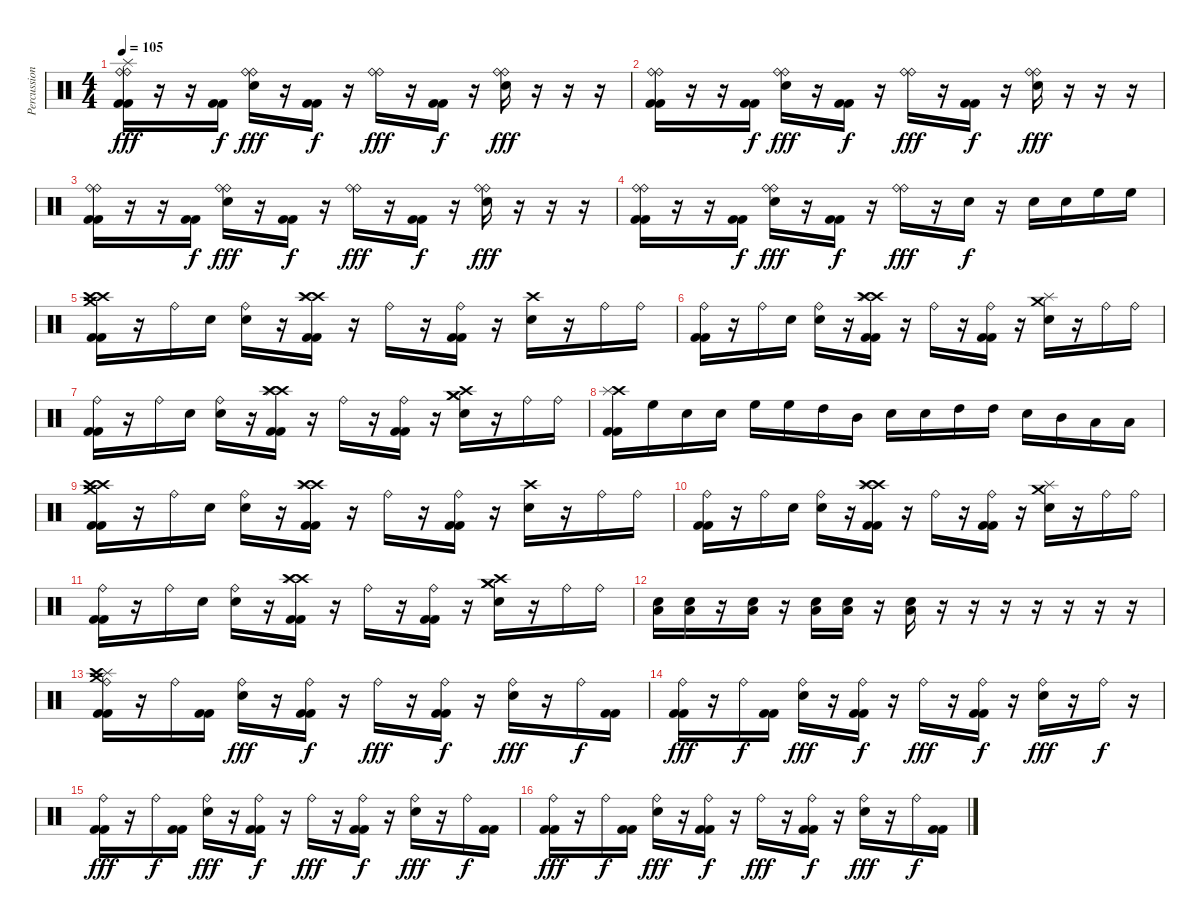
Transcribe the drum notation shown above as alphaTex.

\track ("Percussion" "Percussion") {instrument percussion}
\staff {score}
\articulation defaults
\ts (4 4)
\tempo 105
\clef neutral
\ks c
("Ride (bell)" "Ride (bell)" "Splash (hit)" "Kick (hit) 2" "Kick (hit) 2").16{dy fff} r.16 r.16 ("Kick (hit) 2" "Kick (hit) 2").16{dy f} ("Ride (bell)" "Ride (bell)" "Electric Snare (hit)").16{dy fff} r.16 ("Kick (hit) 2" "Kick (hit) 2").16{dy f} r.16 ("Ride (bell)" "Ride (bell)").16{dy fff} r.16 ("Kick (hit) 2" "Kick (hit) 2").16{dy f} r.16 ("Ride (bell)" "Ride (bell)" "Electric Snare (hit)").16{dy fff} r.16 r.16 r.16 |
("Ride (bell)" "Ride (bell)" "Kick (hit) 2" "Kick (hit) 2").16 r.16 r.16 ("Kick (hit) 2" "Kick (hit) 2").16{dy f} ("Ride (bell)" "Ride (bell)" "Electric Snare (hit)").16{dy fff} r.16 ("Kick (hit) 2" "Kick (hit) 2").16{dy f} r.16 ("Ride (bell)" "Ride (bell)").16{dy fff} r.16 ("Kick (hit) 2" "Kick (hit) 2").16{dy f} r.16 ("Ride (bell)" "Ride (bell)" "Electric Snare (hit)").16{dy fff} r.16 r.16 r.16 |
("Ride (bell)" "Ride (bell)" "Kick (hit) 2" "Kick (hit) 2").16 r.16 r.16 ("Kick (hit) 2" "Kick (hit) 2").16{dy f} ("Ride (bell)" "Ride (bell)" "Electric Snare (hit)").16{dy fff} r.16 ("Kick (hit) 2" "Kick (hit) 2").16{dy f} r.16 ("Ride (bell)" "Ride (bell)").16{dy fff} r.16 ("Kick (hit) 2" "Kick (hit) 2").16{dy f} r.16 ("Ride (bell)" "Ride (bell)" "Electric Snare (hit)").16{dy fff} r.16 r.16 r.16 |
("Ride (bell)" "Ride (bell)" "Kick (hit) 2" "Kick (hit) 2").16 r.16 r.16 ("Kick (hit) 2" "Kick (hit) 2").16{dy f} ("Ride (bell)" "Ride (bell)" "Electric Snare (hit)").16{dy fff} r.16 ("Kick (hit) 2" "Kick (hit) 2").16{dy f} r.16 ("Ride (bell)" "Ride (bell)").16{dy fff} r.16 "Electric Snare (hit)".16{dy f} r.16 "Electric Snare (hit)".16 "Electric Snare (hit)".16 "High Floor Tom (hit)".16 "High Floor Tom (hit)".16 |
("Crash high (hit)" "Crash high (hit)" "Crash medium (hit)" "Kick (hit) 2" "Kick (hit) 2").16 r.16 "Ride (bell)".16 "Electric Snare (hit)".16 ("Ride (bell)" "Electric Snare (hit)").16 r.16 ("Crash high (hit)" "Crash high (hit)" "Splash (hit)" "Kick (hit) 2" "Kick (hit) 2").16 r.16 "Ride (bell)".16 r.16 ("Ride (bell)" "Kick (hit) 2" "Kick (hit) 2").16 r.16 ("Crash high (hit)" "Electric Snare (hit)").16 r.16 "Ride (bell)".16 "Ride (bell)".16 |
("Ride (bell)" "Kick (hit) 2" "Kick (hit) 2").16 r.16 "Ride (bell)".16 "Electric Snare (hit)".16 ("Ride (bell)" "Electric Snare (hit)").16 r.16 ("Crash high (hit)" "Crash high (hit)" "Splash (hit)" "Kick (hit) 2" "Kick (hit) 2").16 r.16 "Ride (bell)".16 r.16 ("Ride (bell)" "Kick (hit) 2" "Kick (hit) 2").16 r.16 ("Crash medium (hit)" "Splash (hit)" "Electric Snare (hit)").16 r.16 "Ride (bell)".16 "Ride (bell)".16 |
("Ride (bell)" "Kick (hit) 2" "Kick (hit) 2").16 r.16 "Ride (bell)".16 "Electric Snare (hit)".16 ("Ride (bell)" "Electric Snare (hit)").16 r.16 ("Crash high (hit)" "Crash high (hit)" "Splash (hit)" "Kick (hit) 2" "Kick (hit) 2").16 r.16 "Ride (bell)".16 r.16 ("Ride (bell)" "Kick (hit) 2" "Kick (hit) 2").16 r.16 ("Crash high (hit)" "Crash medium (hit)" "Crash medium (hit)" "Electric Snare (hit)").16 r.16 "Ride (bell)".16 "Ride (bell)".16 |
("Crash high (hit)" "Splash (hit)" "Kick (hit) 2" "Kick (hit) 2").16 "High Floor Tom (hit)".16 "Electric Snare (hit)".16 "Electric Snare (hit)".16 "High Floor Tom (hit)".16 "High Floor Tom (hit)".16 "High Tom (hit)".16 "Mid Tom (hit)".16 "Electric Snare (hit)".16 "Electric Snare (hit)".16 "High Tom (hit)".16 "High Tom (hit)".16 "Electric Snare (hit)".16 "Mid Tom (hit)".16 "Low Tom (hit)".16 "Low Tom (hit)".16 |
("Crash high (hit)" "Crash high (hit)" "Crash medium (hit)" "Kick (hit) 2" "Kick (hit) 2").16 r.16 "Ride (bell)".16 "Electric Snare (hit)".16 ("Ride (bell)" "Electric Snare (hit)").16 r.16 ("Crash high (hit)" "Crash high (hit)" "Splash (hit)" "Kick (hit) 2" "Kick (hit) 2").16 r.16 "Ride (bell)".16 r.16 ("Ride (bell)" "Kick (hit) 2" "Kick (hit) 2").16 r.16 ("Crash high (hit)" "Electric Snare (hit)").16 r.16 "Ride (bell)".16 "Ride (bell)".16 |
("Ride (bell)" "Kick (hit) 2" "Kick (hit) 2").16 r.16 "Ride (bell)".16 "Electric Snare (hit)".16 ("Ride (bell)" "Electric Snare (hit)").16 r.16 ("Crash high (hit)" "Crash high (hit)" "Splash (hit)" "Kick (hit) 2" "Kick (hit) 2").16 r.16 "Ride (bell)".16 r.16 ("Ride (bell)" "Kick (hit) 2" "Kick (hit) 2").16 r.16 ("Crash medium (hit)" "Splash (hit)" "Electric Snare (hit)").16 r.16 "Ride (bell)".16 "Ride (bell)".16 |
("Ride (bell)" "Kick (hit) 2" "Kick (hit) 2").16 r.16 "Ride (bell)".16 "Electric Snare (hit)".16 ("Ride (bell)" "Electric Snare (hit)").16 r.16 ("Crash high (hit)" "Crash high (hit)" "Splash (hit)" "Kick (hit) 2" "Kick (hit) 2").16 r.16 "Ride (bell)".16 r.16 ("Ride (bell)" "Kick (hit) 2" "Kick (hit) 2").16 r.16 ("Crash high (hit)" "Crash medium (hit)" "Crash medium (hit)" "Electric Snare (hit)").16 r.16 "Ride (bell)".16 "Ride (bell)".16 |
("Low Tom (hit)" "Electric Snare (hit)").16 ("Low Tom (hit)" "Electric Snare (hit)").16 r.16 ("Low Tom (hit)" "Electric Snare (hit)").16 r.16 ("Low Tom (hit)" "Electric Snare (hit)").16 ("Low Tom (hit)" "Electric Snare (hit)").16 r.16 ("Low Tom (hit)" "Electric Snare (hit)").16 r.16 r.16 r.16 r.16 r.16 r.16 r.16 |
("Ride (bell)" "Crash medium (hit)" "Splash (hit)" "Crash high (hit)" "Kick (hit) 2" "Kick (hit) 2").16 r.16 "Ride (bell)".16 ("Kick (hit) 2" "Kick (hit) 2").16 ("Ride (bell)" "Electric Snare (hit)").16{dy fff} r.16 ("Ride (bell)" "Kick (hit) 2" "Kick (hit) 2").16{dy f} r.16 "Ride (bell)".16{dy fff} r.16 ("Ride (bell)" "Kick (hit) 2" "Kick (hit) 2").16{dy f} r.16 ("Ride (bell)" "Electric Snare (hit)").16{dy fff} r.16 "Ride (bell)".16{dy f} ("Kick (hit) 2" "Kick (hit) 2").16 |
("Ride (bell)" "Kick (hit) 2" "Kick (hit) 2").16{dy fff} r.16 "Ride (bell)".16{dy f} ("Kick (hit) 2" "Kick (hit) 2").16 ("Ride (bell)" "Electric Snare (hit)").16{dy fff} r.16 ("Ride (bell)" "Kick (hit) 2" "Kick (hit) 2").16{dy f} r.16 "Ride (bell)".16{dy fff} r.16 ("Ride (bell)" "Kick (hit) 2" "Kick (hit) 2").16{dy f} r.16 ("Ride (bell)" "Electric Snare (hit)").16{dy fff} r.16 "Ride (bell)".16{dy f} r.16 |
("Ride (bell)" "Kick (hit) 2" "Kick (hit) 2").16{dy fff} r.16 "Ride (bell)".16{dy f} ("Kick (hit) 2" "Kick (hit) 2").16 ("Ride (bell)" "Electric Snare (hit)").16{dy fff} r.16 ("Ride (bell)" "Kick (hit) 2" "Kick (hit) 2").16{dy f} r.16 "Ride (bell)".16{dy fff} r.16 ("Ride (bell)" "Kick (hit) 2" "Kick (hit) 2").16{dy f} r.16 ("Ride (bell)" "Electric Snare (hit)").16{dy fff} r.16 "Ride (bell)".16{dy f} ("Kick (hit) 2" "Kick (hit) 2").16 |
("Ride (bell)" "Kick (hit) 2" "Kick (hit) 2").16{dy fff} r.16 "Ride (bell)".16{dy f} ("Kick (hit) 2" "Kick (hit) 2").16 ("Ride (bell)" "Electric Snare (hit)").16{dy fff} r.16 ("Ride (bell)" "Kick (hit) 2" "Kick (hit) 2").16{dy f} r.16 "Ride (bell)".16{dy fff} r.16 ("Ride (bell)" "Kick (hit) 2" "Kick (hit) 2").16{dy f} r.16 ("Ride (bell)" "Electric Snare (hit)").16{dy fff} r.16 "Ride (bell)".16{dy f} ("Kick (hit) 2" "Kick (hit) 2").16
